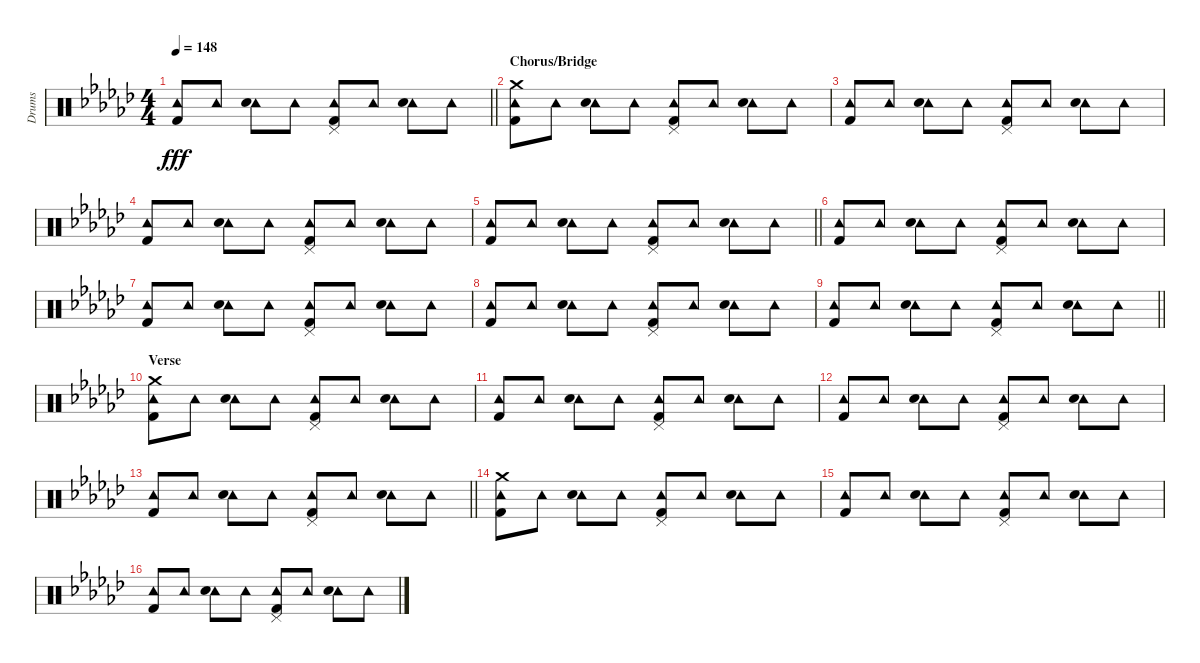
\track ("Drums" "Drums") {instrument percussion}
\staff {score}
\articulation defaults
\ts (4 4)
\tempo 148
\clef neutral
\barLineRight lightlight
\ks gb
("Tambourine (hit)" "Kick (hit) 2").8{dy fff} "Tambourine (hit)".8 ("Tambourine (hit)" "Electric Snare (hit)").8 "Tambourine (hit)".8 ("Pedal Hi-Hat (hit)" "Tambourine (hit)" "Kick (hit) 2").8 "Tambourine (hit)".8 ("Tambourine (hit)" "Electric Snare (hit)").8 "Tambourine (hit)".8 |
\section ("" "Chorus/Bridge ")
("Crash medium (hit)" "Tambourine (hit)" "Kick (hit) 2").8 "Tambourine (hit)".8 ("Tambourine (hit)" "Electric Snare (hit)").8 "Tambourine (hit)".8 ("Pedal Hi-Hat (hit)" "Tambourine (hit)" "Kick (hit) 2").8 "Tambourine (hit)".8 ("Tambourine (hit)" "Electric Snare (hit)").8 "Tambourine (hit)".8 |
("Tambourine (hit)" "Kick (hit) 2").8 "Tambourine (hit)".8 ("Tambourine (hit)" "Electric Snare (hit)").8 "Tambourine (hit)".8 ("Pedal Hi-Hat (hit)" "Tambourine (hit)" "Kick (hit) 2").8 "Tambourine (hit)".8 ("Tambourine (hit)" "Electric Snare (hit)").8 "Tambourine (hit)".8 |
("Tambourine (hit)" "Kick (hit) 2").8 "Tambourine (hit)".8 ("Tambourine (hit)" "Electric Snare (hit)").8 "Tambourine (hit)".8 ("Pedal Hi-Hat (hit)" "Tambourine (hit)" "Kick (hit) 2").8 "Tambourine (hit)".8 ("Tambourine (hit)" "Electric Snare (hit)").8 "Tambourine (hit)".8 |
\barLineRight lightlight
("Tambourine (hit)" "Kick (hit) 2").8 "Tambourine (hit)".8 ("Tambourine (hit)" "Electric Snare (hit)").8 "Tambourine (hit)".8 ("Pedal Hi-Hat (hit)" "Tambourine (hit)" "Kick (hit) 2").8 "Tambourine (hit)".8 ("Tambourine (hit)" "Electric Snare (hit)").8 "Tambourine (hit)".8 |
("Tambourine (hit)" "Kick (hit) 2").8 "Tambourine (hit)".8 ("Tambourine (hit)" "Electric Snare (hit)").8 "Tambourine (hit)".8 ("Pedal Hi-Hat (hit)" "Tambourine (hit)" "Kick (hit) 2").8 "Tambourine (hit)".8 ("Tambourine (hit)" "Electric Snare (hit)").8 "Tambourine (hit)".8 |
("Tambourine (hit)" "Kick (hit) 2").8 "Tambourine (hit)".8 ("Tambourine (hit)" "Electric Snare (hit)").8 "Tambourine (hit)".8 ("Pedal Hi-Hat (hit)" "Tambourine (hit)" "Kick (hit) 2").8 "Tambourine (hit)".8 ("Tambourine (hit)" "Electric Snare (hit)").8 "Tambourine (hit)".8 |
("Tambourine (hit)" "Kick (hit) 2").8 "Tambourine (hit)".8 ("Tambourine (hit)" "Electric Snare (hit)").8 "Tambourine (hit)".8 ("Pedal Hi-Hat (hit)" "Tambourine (hit)" "Kick (hit) 2").8 "Tambourine (hit)".8 ("Tambourine (hit)" "Electric Snare (hit)").8 "Tambourine (hit)".8 |
\barLineRight lightlight
("Tambourine (hit)" "Kick (hit) 2").8 "Tambourine (hit)".8 ("Tambourine (hit)" "Electric Snare (hit)").8 "Tambourine (hit)".8 ("Pedal Hi-Hat (hit)" "Tambourine (hit)" "Kick (hit) 2").8 "Tambourine (hit)".8 ("Tambourine (hit)" "Electric Snare (hit)").8 "Tambourine (hit)".8 |
\section ("" "Verse")
("Crash medium (hit)" "Tambourine (hit)" "Kick (hit) 2").8 "Tambourine (hit)".8 ("Tambourine (hit)" "Electric Snare (hit)").8 "Tambourine (hit)".8 ("Pedal Hi-Hat (hit)" "Tambourine (hit)" "Kick (hit) 2").8 "Tambourine (hit)".8 ("Tambourine (hit)" "Electric Snare (hit)").8 "Tambourine (hit)".8 |
("Tambourine (hit)" "Kick (hit) 2").8 "Tambourine (hit)".8 ("Tambourine (hit)" "Electric Snare (hit)").8 "Tambourine (hit)".8 ("Pedal Hi-Hat (hit)" "Tambourine (hit)" "Kick (hit) 2").8 "Tambourine (hit)".8 ("Tambourine (hit)" "Electric Snare (hit)").8 "Tambourine (hit)".8 |
("Tambourine (hit)" "Kick (hit) 2").8 "Tambourine (hit)".8 ("Tambourine (hit)" "Electric Snare (hit)").8 "Tambourine (hit)".8 ("Pedal Hi-Hat (hit)" "Tambourine (hit)" "Kick (hit) 2").8 "Tambourine (hit)".8 ("Tambourine (hit)" "Electric Snare (hit)").8 "Tambourine (hit)".8 |
\barLineRight lightlight
("Tambourine (hit)" "Kick (hit) 2").8 "Tambourine (hit)".8 ("Tambourine (hit)" "Electric Snare (hit)").8 "Tambourine (hit)".8 ("Pedal Hi-Hat (hit)" "Tambourine (hit)" "Kick (hit) 2").8 "Tambourine (hit)".8 ("Tambourine (hit)" "Electric Snare (hit)").8 "Tambourine (hit)".8 |
("Crash medium (hit)" "Tambourine (hit)" "Kick (hit) 2").8 "Tambourine (hit)".8 ("Tambourine (hit)" "Electric Snare (hit)").8 "Tambourine (hit)".8 ("Pedal Hi-Hat (hit)" "Tambourine (hit)" "Kick (hit) 2").8 "Tambourine (hit)".8 ("Tambourine (hit)" "Electric Snare (hit)").8 "Tambourine (hit)".8 |
("Tambourine (hit)" "Kick (hit) 2").8 "Tambourine (hit)".8 ("Tambourine (hit)" "Electric Snare (hit)").8 "Tambourine (hit)".8 ("Pedal Hi-Hat (hit)" "Tambourine (hit)" "Kick (hit) 2").8 "Tambourine (hit)".8 ("Tambourine (hit)" "Electric Snare (hit)").8 "Tambourine (hit)".8 |
("Tambourine (hit)" "Kick (hit) 2").8 "Tambourine (hit)".8 ("Tambourine (hit)" "Electric Snare (hit)").8 "Tambourine (hit)".8 ("Pedal Hi-Hat (hit)" "Tambourine (hit)" "Kick (hit) 2").8 "Tambourine (hit)".8 ("Tambourine (hit)" "Electric Snare (hit)").8 "Tambourine (hit)".8
